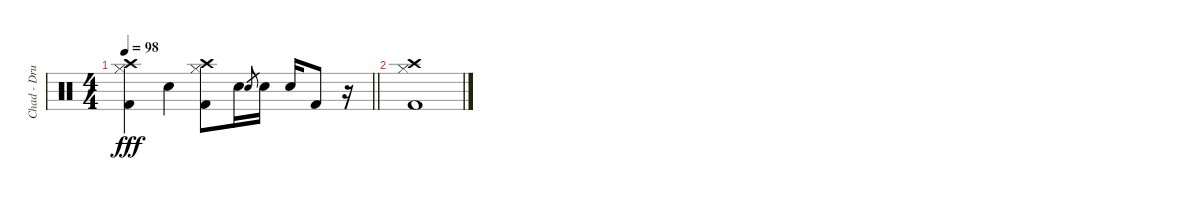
\track ("Chad - Drums" "Chad - Dru") {instrument percussion}
\staff {score}
\articulation defaults
\ts (4 4)
\tempo 98
\clef neutral
\barLineRight lightlight
\ks c
("Hi-Hat (closed)" "Crash high (hit)" "Kick (hit) 2").4{dy fff} "Snare (hit) 2".4 ("Hi-Hat (closed)" "Crash high (hit)" "Kick (hit) 2").8 "Snare (hit) 2".16 "Snare (hit) 2".8{gr} "Snare (hit) 2".16 "Snare (hit) 2".16 "Kick (hit) 2".8 r.16 |
("Hi-Hat (closed)" "Crash high (hit)" "Kick (hit) 2").1
